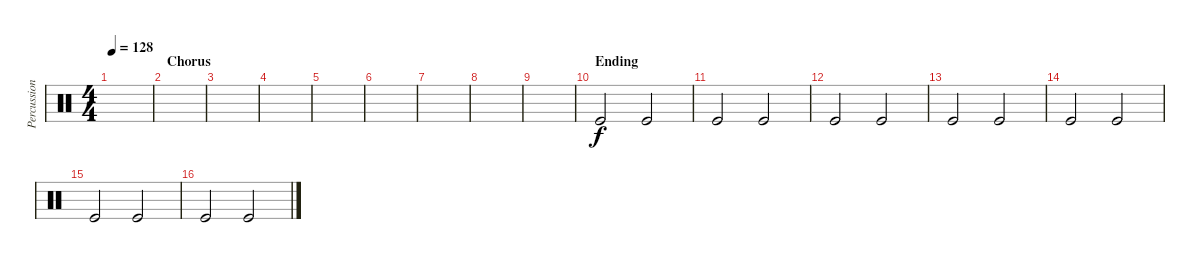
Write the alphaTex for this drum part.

\track ("Percussion" "Percussion") {instrument percussion}
\staff {score}
\articulation defaults
\ts (4 4)
\tempo 128
\clef neutral
\ks c
|
\section ("" "Chorus")
|
|
|
|
|
|
|
|
\section ("" "Ending")
"Kick (hit)".2 "Kick (hit)".2 |
"Kick (hit)".2 "Kick (hit)".2 |
"Kick (hit)".2 "Kick (hit)".2 |
"Kick (hit)".2 "Kick (hit)".2 |
"Kick (hit)".2 "Kick (hit)".2 |
"Kick (hit)".2 "Kick (hit)".2 |
"Kick (hit)".2 "Kick (hit)".2
